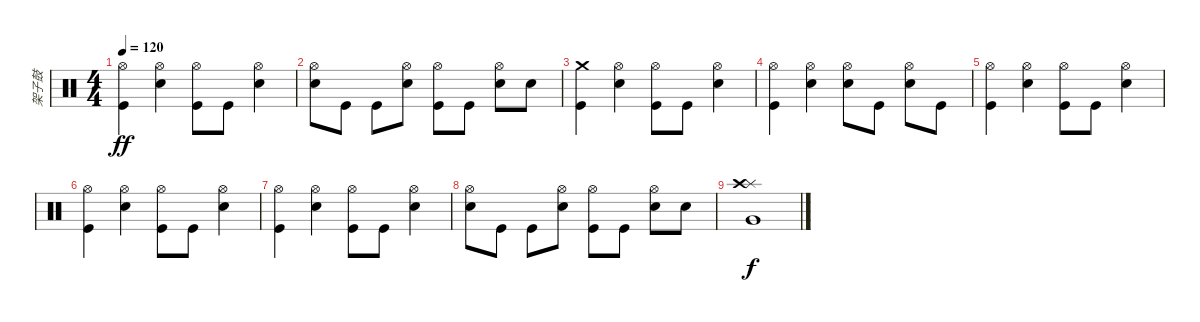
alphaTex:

\track ("架子鼓" "架子鼓") {instrument percussion}
\staff {score}
\articulation defaults
\ts (4 4)
\tempo 120
\clef neutral
\ks c
("Hi-Hat (open)" "Kick (hit)").4{dy ff} ("Hi-Hat (open)" "Snare (hit) 2").4 ("Hi-Hat (open)" "Kick (hit)").8 "Kick (hit)".8 ("Hi-Hat (open)" "Snare (hit) 2").4 |
("Hi-Hat (open)" "Snare (hit) 2").8 "Kick (hit)".8 "Kick (hit)".8 ("Hi-Hat (open)" "Snare (hit) 2").8 ("Hi-Hat (open)" "Kick (hit)").8 "Kick (hit)".8 ("Hi-Hat (open)" "Snare (hit) 2").8 "Snare (hit) 2".8 |
("Crash medium (hit)" "Kick (hit)").4 ("Hi-Hat (open)" "Snare (hit) 2").4 ("Hi-Hat (open)" "Kick (hit)").8 "Kick (hit)".8 ("Hi-Hat (open)" "Snare (hit) 2").4 |
("Hi-Hat (open)" "Kick (hit)").4 ("Hi-Hat (open)" "Snare (hit) 2").4 ("Hi-Hat (open)" "Snare (hit) 2").8 "Kick (hit)".8 ("Hi-Hat (open)" "Snare (hit) 2").8 "Kick (hit)".8 |
("Hi-Hat (open)" "Kick (hit)").4 ("Hi-Hat (open)" "Snare (hit) 2").4 ("Hi-Hat (open)" "Kick (hit)").8 "Kick (hit)".8 ("Hi-Hat (open)" "Snare (hit) 2").4 |
("Hi-Hat (open)" "Kick (hit)").4 ("Hi-Hat (open)" "Snare (hit) 2").4 ("Hi-Hat (open)" "Kick (hit)").8 "Kick (hit)".8 ("Hi-Hat (open)" "Snare (hit) 2").4 |
("Hi-Hat (open)" "Kick (hit)").4 ("Hi-Hat (open)" "Snare (hit) 2").4 ("Hi-Hat (open)" "Kick (hit)").8 "Kick (hit)".8 ("Hi-Hat (open)" "Snare (hit) 2").4 |
("Hi-Hat (open)" "Snare (hit) 2").8 "Kick (hit)".8 "Kick (hit)".8 ("Hi-Hat (open)" "Snare (hit) 2").8 ("Hi-Hat (open)" "Kick (hit)").8 "Kick (hit)".8 ("Hi-Hat (open)" "Snare (hit) 2").8 "Snare (hit) 2".8 |
("Splash (hit)" "Crash high (hit)" "Very Low Tom (hit)").1{dy f}
